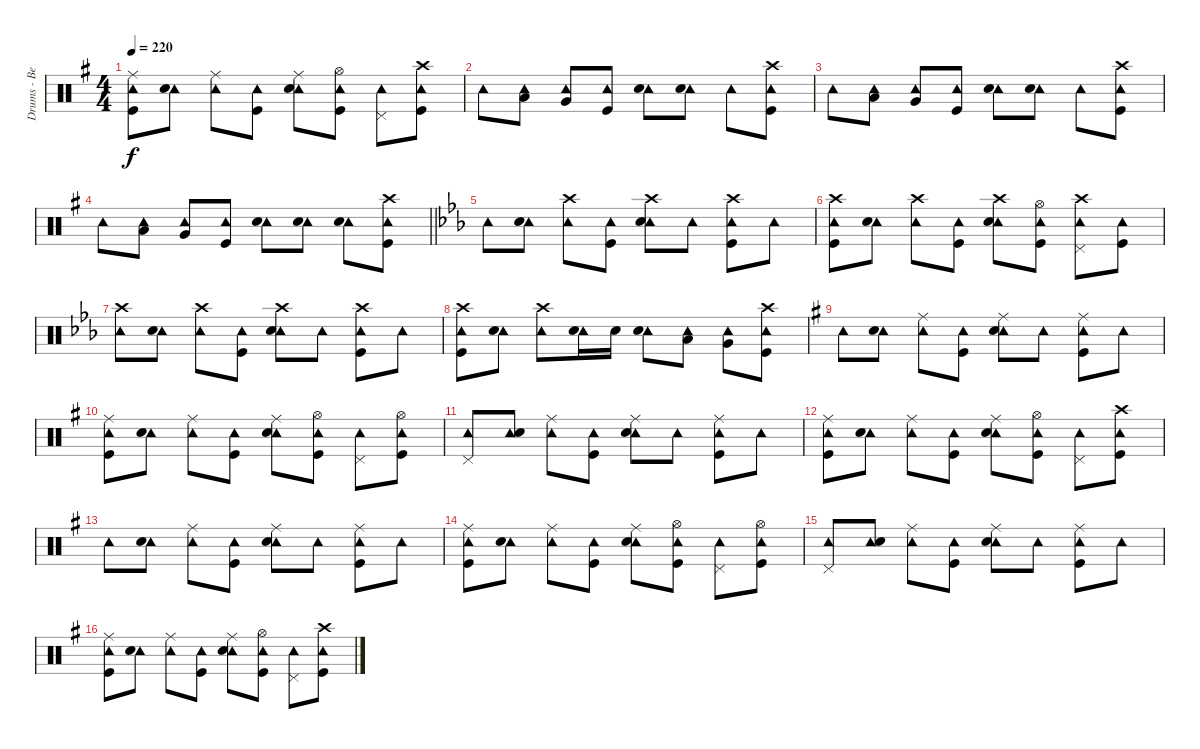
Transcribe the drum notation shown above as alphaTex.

\track ("Drums - Ben Johnston" "Drums - Be") {instrument percussion}
\staff {score}
\articulation defaults
\ts (4 4)
\tempo 220
\clef neutral
\ks eminor
("Ride (middle)" "Tambourine (hit)" "Kick (hit)").8{dy f} ("Tambourine (hit)" "Snare (hit) 2").8 ("Ride (middle)" "Tambourine (hit)").8 ("Tambourine (hit)" "Kick (hit)").8 ("Ride (middle)" "Tambourine (hit)" "Snare (hit) 2").8 ("Hi-Hat (open)" "Tambourine (hit)" "Kick (hit)").8 ("Tambourine (hit)" "Pedal Hi-Hat (hit)").8 ("Crash high (hit)" "Tambourine (hit)" "Kick (hit)").8 |
"Tambourine (hit)".8 ("Tambourine (hit)" "Low Tom (hit)").8 ("Tambourine (hit)" "Very Low Tom (hit)").8 ("Tambourine (hit)" "Kick (hit)").8 ("Tambourine (hit)" "Snare (hit) 2").8 ("Tambourine (hit)" "Snare (hit) 2").8 "Tambourine (hit)".8 ("Crash high (hit)" "Tambourine (hit)" "Kick (hit)").8 |
"Tambourine (hit)".8 ("Tambourine (hit)" "Low Tom (hit)").8 ("Tambourine (hit)" "Very Low Tom (hit)").8 ("Tambourine (hit)" "Kick (hit)").8 ("Tambourine (hit)" "Snare (hit) 2").8 ("Tambourine (hit)" "Snare (hit) 2").8 "Tambourine (hit)".8 ("Crash high (hit)" "Tambourine (hit)" "Kick (hit)").8 |
\barLineRight lightlight "Tambourine (hit)".8
("Tambourine (hit)" "Low Tom (hit)").8 ("Tambourine (hit)" "Very Low Tom (hit)").8 ("Tambourine (hit)" "Kick (hit)").8 ("Tambourine (hit)" "Snare (hit) 2").8 ("Tambourine (hit)" "Snare (hit) 2").8 ("Tambourine (hit)" "Snare (hit) 2").8 ("Crash high (hit)" "Tambourine (hit)" "Kick (hit)").8 |
\ks eb "Tambourine (hit)".8
("Tambourine (hit)" "Snare (hit) 2").8 ("Crash high (hit)" "Tambourine (hit)").8 ("Tambourine (hit)" "Kick (hit)").8 ("Crash high (hit)" "Tambourine (hit)" "Snare (hit) 2").8 "Tambourine (hit)".8 ("Crash high (hit)" "Tambourine (hit)" "Kick (hit)").8 "Tambourine (hit)".8 |
("Crash high (hit)" "Tambourine (hit)" "Kick (hit)").8 ("Tambourine (hit)" "Snare (hit) 2").8 ("Crash high (hit)" "Tambourine (hit)").8 ("Tambourine (hit)" "Kick (hit)").8 ("Crash high (hit)" "Tambourine (hit)" "Snare (hit) 2").8 ("Hi-Hat (open)" "Tambourine (hit)" "Kick (hit)").8 ("Crash high (hit)" "Tambourine (hit)" "Pedal Hi-Hat (hit)").8 ("Tambourine (hit)" "Kick (hit)").8 |
("Crash high (hit)" "Tambourine (hit)").8 ("Tambourine (hit)" "Snare (hit) 2").8 ("Crash high (hit)" "Tambourine (hit)").8 ("Tambourine (hit)" "Kick (hit)").8 ("Crash high (hit)" "Tambourine (hit)" "Snare (hit) 2").8 "Tambourine (hit)".8 ("Crash high (hit)" "Tambourine (hit)" "Kick (hit)").8 "Tambourine (hit)".8 |
("Crash high (hit)" "Tambourine (hit)" "Kick (hit)").8 ("Tambourine (hit)" "Snare (hit) 2").8 ("Crash high (hit)" "Tambourine (hit)").8 ("Tambourine (hit)" "Snare (hit) 2").16 "Snare (hit) 2".16 ("Tambourine (hit)" "Snare (hit) 2").8 ("Tambourine (hit)" "Low Tom (hit)").8 ("Tambourine (hit)" "Very Low Tom (hit)").8 ("Crash high (hit)" "Tambourine (hit)" "Kick (hit)").8 |
\ks eminor "Tambourine (hit)".8
("Tambourine (hit)" "Snare (hit) 2").8 ("Ride (middle)" "Tambourine (hit)").8 ("Tambourine (hit)" "Kick (hit)").8 ("Ride (middle)" "Tambourine (hit)" "Snare (hit) 2").8 "Tambourine (hit)".8 ("Ride (middle)" "Tambourine (hit)" "Kick (hit)").8 "Tambourine (hit)".8 |
("Ride (middle)" "Tambourine (hit)" "Kick (hit)").8 ("Tambourine (hit)" "Snare (hit) 2").8 ("Ride (middle)" "Tambourine (hit)").8 ("Tambourine (hit)" "Kick (hit)").8 ("Ride (middle)" "Tambourine (hit)" "Snare (hit) 2").8 ("Hi-Hat (open)" "Tambourine (hit)" "Kick (hit)").8 ("Tambourine (hit)" "Pedal Hi-Hat (hit)").8 ("Hi-Hat (open)" "Tambourine (hit)" "Kick (hit)").8 |
("Tambourine (hit)" "Pedal Hi-Hat (hit)").8 ("Tambourine (hit)" "Snare (hit) 2").8 ("Ride (middle)" "Tambourine (hit)").8 ("Tambourine (hit)" "Kick (hit)").8 ("Ride (middle)" "Tambourine (hit)" "Snare (hit) 2").8 "Tambourine (hit)".8 ("Ride (middle)" "Tambourine (hit)" "Kick (hit)").8 "Tambourine (hit)".8 |
("Ride (middle)" "Tambourine (hit)" "Kick (hit)").8 ("Tambourine (hit)" "Snare (hit) 2").8 ("Ride (middle)" "Tambourine (hit)").8 ("Tambourine (hit)" "Kick (hit)").8 ("Ride (middle)" "Tambourine (hit)" "Snare (hit) 2").8 ("Hi-Hat (open)" "Tambourine (hit)" "Kick (hit)").8 ("Tambourine (hit)" "Pedal Hi-Hat (hit)").8 ("Crash high (hit)" "Tambourine (hit)" "Kick (hit)").8 |
"Tambourine (hit)".8 ("Tambourine (hit)" "Snare (hit) 2").8 ("Ride (middle)" "Tambourine (hit)").8 ("Tambourine (hit)" "Kick (hit)").8 ("Ride (middle)" "Tambourine (hit)" "Snare (hit) 2").8 "Tambourine (hit)".8 ("Ride (middle)" "Tambourine (hit)" "Kick (hit)").8 "Tambourine (hit)".8 |
("Ride (middle)" "Tambourine (hit)" "Kick (hit)").8 ("Tambourine (hit)" "Snare (hit) 2").8 ("Ride (middle)" "Tambourine (hit)").8 ("Tambourine (hit)" "Kick (hit)").8 ("Ride (middle)" "Tambourine (hit)" "Snare (hit) 2").8 ("Hi-Hat (open)" "Tambourine (hit)" "Kick (hit)").8 ("Tambourine (hit)" "Pedal Hi-Hat (hit)").8 ("Hi-Hat (open)" "Tambourine (hit)" "Kick (hit)").8 |
("Tambourine (hit)" "Pedal Hi-Hat (hit)").8 ("Tambourine (hit)" "Snare (hit) 2").8 ("Ride (middle)" "Tambourine (hit)").8 ("Tambourine (hit)" "Kick (hit)").8 ("Ride (middle)" "Tambourine (hit)" "Snare (hit) 2").8 "Tambourine (hit)".8 ("Ride (middle)" "Tambourine (hit)" "Kick (hit)").8 "Tambourine (hit)".8 |
("Ride (middle)" "Tambourine (hit)" "Kick (hit)").8 ("Tambourine (hit)" "Snare (hit) 2").8 ("Ride (middle)" "Tambourine (hit)").8 ("Tambourine (hit)" "Kick (hit)").8 ("Ride (middle)" "Tambourine (hit)" "Snare (hit) 2").8 ("Hi-Hat (open)" "Tambourine (hit)" "Kick (hit)").8 ("Tambourine (hit)" "Pedal Hi-Hat (hit)").8 ("Crash high (hit)" "Tambourine (hit)" "Kick (hit)").8
